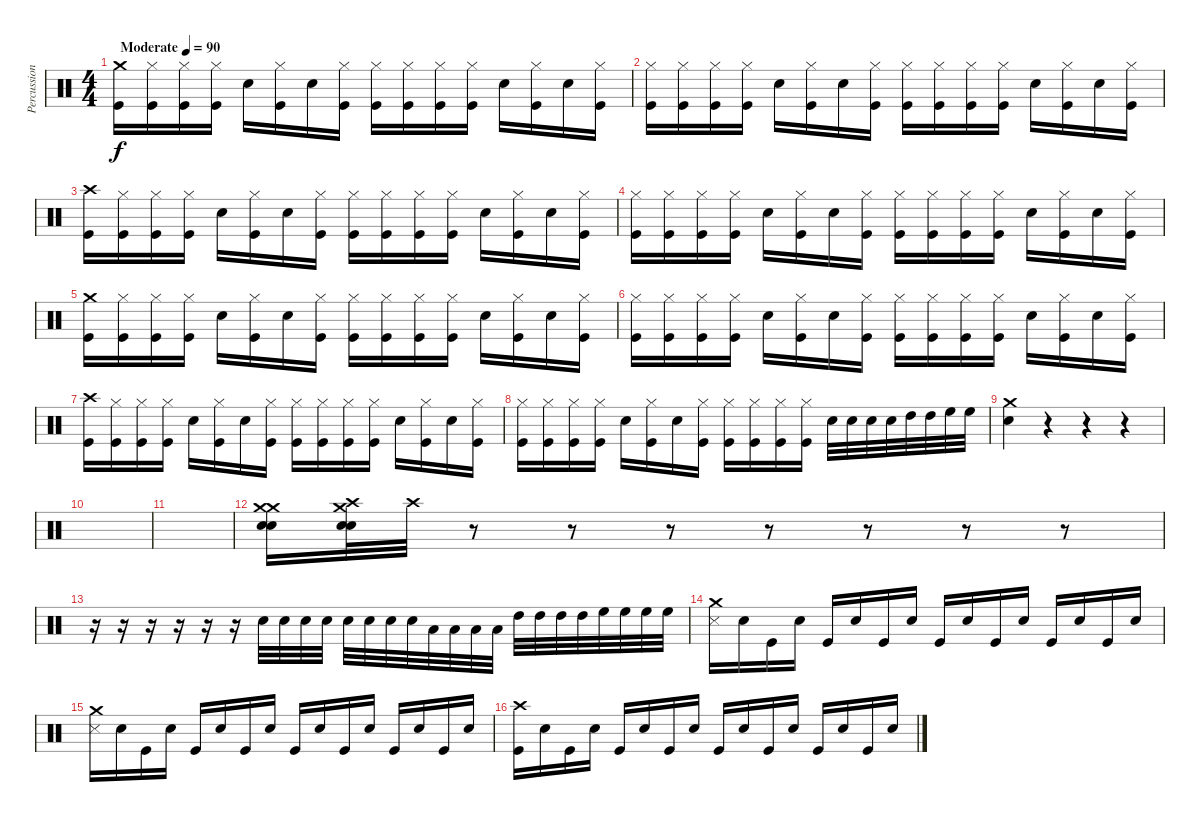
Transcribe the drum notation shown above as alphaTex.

\track ("Percussion" "Percussion") {instrument percussion}
\staff {score}
\articulation defaults
\ts (4 4)
\tempo (90 "Moderate")
\clef neutral
\ks c
("Crash medium (hit)" "Kick (hit)").16{dy f} ("Hi-Hat (closed)" "Kick (hit)").16 ("Hi-Hat (closed)" "Kick (hit)").16 ("Hi-Hat (closed)" "Kick (hit)").16 "Electric Snare (hit)".16 ("Hi-Hat (closed)" "Kick (hit)").16 "Electric Snare (hit)".16 ("Hi-Hat (closed)" "Kick (hit)").16 ("Hi-Hat (closed)" "Kick (hit)").16 ("Hi-Hat (closed)" "Kick (hit)").16 ("Hi-Hat (closed)" "Kick (hit)").16 ("Hi-Hat (closed)" "Kick (hit)").16 "Electric Snare (hit)".16 ("Hi-Hat (closed)" "Kick (hit)").16 "Electric Snare (hit)".16 ("Hi-Hat (closed)" "Kick (hit)").16 |
("Hi-Hat (closed)" "Kick (hit)").16 ("Hi-Hat (closed)" "Kick (hit)").16 ("Hi-Hat (closed)" "Kick (hit)").16 ("Hi-Hat (closed)" "Kick (hit)").16 "Electric Snare (hit)".16 ("Hi-Hat (closed)" "Kick (hit)").16 "Electric Snare (hit)".16 ("Hi-Hat (closed)" "Kick (hit)").16 ("Hi-Hat (closed)" "Kick (hit)").16 ("Hi-Hat (closed)" "Kick (hit)").16 ("Hi-Hat (closed)" "Kick (hit)").16 ("Hi-Hat (closed)" "Kick (hit)").16 "Electric Snare (hit)".16 ("Hi-Hat (closed)" "Kick (hit)").16 "Electric Snare (hit)".16 ("Hi-Hat (closed)" "Kick (hit)").16 |
("Crash high (hit)" "Kick (hit)").16 ("Hi-Hat (closed)" "Kick (hit)").16 ("Hi-Hat (closed)" "Kick (hit)").16 ("Hi-Hat (closed)" "Kick (hit)").16 "Electric Snare (hit)".16 ("Hi-Hat (closed)" "Kick (hit)").16 "Electric Snare (hit)".16 ("Hi-Hat (closed)" "Kick (hit)").16 ("Hi-Hat (closed)" "Kick (hit)").16 ("Hi-Hat (closed)" "Kick (hit)").16 ("Hi-Hat (closed)" "Kick (hit)").16 ("Hi-Hat (closed)" "Kick (hit)").16 "Electric Snare (hit)".16 ("Hi-Hat (closed)" "Kick (hit)").16 "Electric Snare (hit)".16 ("Hi-Hat (closed)" "Kick (hit)").16 |
("Hi-Hat (closed)" "Kick (hit)").16 ("Hi-Hat (closed)" "Kick (hit)").16 ("Hi-Hat (closed)" "Kick (hit)").16 ("Hi-Hat (closed)" "Kick (hit)").16 "Electric Snare (hit)".16 ("Hi-Hat (closed)" "Kick (hit)").16 "Electric Snare (hit)".16 ("Hi-Hat (closed)" "Kick (hit)").16 ("Hi-Hat (closed)" "Kick (hit)").16 ("Hi-Hat (closed)" "Kick (hit)").16 ("Hi-Hat (closed)" "Kick (hit)").16 ("Hi-Hat (closed)" "Kick (hit)").16 "Electric Snare (hit)".16 ("Hi-Hat (closed)" "Kick (hit)").16 "Electric Snare (hit)".16 ("Hi-Hat (closed)" "Kick (hit)").16 |
("Crash medium (hit)" "Kick (hit)").16 ("Hi-Hat (closed)" "Kick (hit)").16 ("Hi-Hat (closed)" "Kick (hit)").16 ("Hi-Hat (closed)" "Kick (hit)").16 "Electric Snare (hit)".16 ("Hi-Hat (closed)" "Kick (hit)").16 "Electric Snare (hit)".16 ("Hi-Hat (closed)" "Kick (hit)").16 ("Hi-Hat (closed)" "Kick (hit)").16 ("Hi-Hat (closed)" "Kick (hit)").16 ("Hi-Hat (closed)" "Kick (hit)").16 ("Hi-Hat (closed)" "Kick (hit)").16 "Electric Snare (hit)".16 ("Hi-Hat (closed)" "Kick (hit)").16 "Electric Snare (hit)".16 ("Hi-Hat (closed)" "Kick (hit)").16 |
("Hi-Hat (closed)" "Kick (hit)").16 ("Hi-Hat (closed)" "Kick (hit)").16 ("Hi-Hat (closed)" "Kick (hit)").16 ("Hi-Hat (closed)" "Kick (hit)").16 "Electric Snare (hit)".16 ("Hi-Hat (closed)" "Kick (hit)").16 "Electric Snare (hit)".16 ("Hi-Hat (closed)" "Kick (hit)").16 ("Hi-Hat (closed)" "Kick (hit)").16 ("Hi-Hat (closed)" "Kick (hit)").16 ("Hi-Hat (closed)" "Kick (hit)").16 ("Hi-Hat (closed)" "Kick (hit)").16 "Electric Snare (hit)".16 ("Hi-Hat (closed)" "Kick (hit)").16 "Electric Snare (hit)".16 ("Hi-Hat (closed)" "Kick (hit)").16 |
("Crash high (hit)" "Kick (hit)").16 ("Hi-Hat (closed)" "Kick (hit)").16 ("Hi-Hat (closed)" "Kick (hit)").16 ("Hi-Hat (closed)" "Kick (hit)").16 "Electric Snare (hit)".16 ("Hi-Hat (closed)" "Kick (hit)").16 "Electric Snare (hit)".16 ("Hi-Hat (closed)" "Kick (hit)").16 ("Hi-Hat (closed)" "Kick (hit)").16 ("Hi-Hat (closed)" "Kick (hit)").16 ("Hi-Hat (closed)" "Kick (hit)").16 ("Hi-Hat (closed)" "Kick (hit)").16 "Electric Snare (hit)".16 ("Hi-Hat (closed)" "Kick (hit)").16 "Electric Snare (hit)".16 ("Hi-Hat (closed)" "Kick (hit)").16 |
("Hi-Hat (closed)" "Kick (hit)").16 ("Hi-Hat (closed)" "Kick (hit)").16 ("Hi-Hat (closed)" "Kick (hit)").16 ("Hi-Hat (closed)" "Kick (hit)").16 "Electric Snare (hit)".16 ("Hi-Hat (closed)" "Kick (hit)").16 "Electric Snare (hit)".16 ("Hi-Hat (closed)" "Kick (hit)").16 ("Hi-Hat (closed)" "Kick (hit)").16 ("Hi-Hat (closed)" "Kick (hit)").16 ("Hi-Hat (closed)" "Kick (hit)").16 ("Hi-Hat (closed)" "Kick (hit)").16 "Snare (hit) 2".32 "Snare (hit) 2".32 "Electric Snare (hit)".32 "Electric Snare (hit)".32 "High Tom (hit)".32 "High Tom (hit)".32 "High Floor Tom (hit)".32 "High Floor Tom (hit)".32 |
("Crash medium (hit)" "Electric Snare (hit)").4 r.4 r.4 r.4 |
|
|
("Crash medium (hit)" "Crash medium (hit)" "Electric Snare (hit)" "Electric Snare (hit)").16 ("Crash high (hit)" "Crash medium (hit)" "Electric Snare (hit)" "Electric Snare (hit)").32 "Crash high (hit)".32 r.8 r.8 r.8 r.8 r.8 r.8 r.8 |
r.16 r.16 r.16 r.16 r.16 r.16 "Snare (hit) 2".32 "Snare (hit) 2".32 "Snare (hit) 2".32 "Snare (hit) 2".32 "Electric Snare (hit)".32 "Electric Snare (hit)".32 "Electric Snare (hit)".32 "Electric Snare (hit)".32 "Low Tom (hit)".32 "Low Tom (hit)".32 "Low Tom (hit)".32 "Low Tom (hit)".32 "High Tom (hit)".32 "High Tom (hit)".32 "High Tom (hit)".32 "High Tom (hit)".32 "High Floor Tom (hit)".32 "High Floor Tom (hit)".32 "High Floor Tom (hit)".32 "High Floor Tom (hit)".32 |
("Crash medium (hit)" "Metronome (hit)").16 "Electric Snare (hit)".16 "Kick (hit)".16 "Electric Snare (hit)".16 "Kick (hit)".16 "Electric Snare (hit)".16 "Kick (hit)".16 "Electric Snare (hit)".16 "Kick (hit)".16 "Electric Snare (hit)".16 "Kick (hit)".16 "Electric Snare (hit)".16 "Kick (hit)".16 "Electric Snare (hit)".16 "Kick (hit)".16 "Electric Snare (hit)".16 |
("Crash medium (hit)" "Metronome (hit)").16 "Electric Snare (hit)".16 "Kick (hit)".16 "Electric Snare (hit)".16 "Kick (hit)".16 "Electric Snare (hit)".16 "Kick (hit)".16 "Electric Snare (hit)".16 "Kick (hit)".16 "Electric Snare (hit)".16 "Kick (hit)".16 "Electric Snare (hit)".16 "Kick (hit)".16 "Electric Snare (hit)".16 "Kick (hit)".16 "Electric Snare (hit)".16 |
("Kick (hit)" "Crash high (hit)").16 "Electric Snare (hit)".16 "Kick (hit)".16 "Electric Snare (hit)".16 "Kick (hit)".16 "Electric Snare (hit)".16 "Kick (hit)".16 "Electric Snare (hit)".16 "Kick (hit)".16 "Electric Snare (hit)".16 "Kick (hit)".16 "Electric Snare (hit)".16 "Kick (hit)".16 "Electric Snare (hit)".16 "Kick (hit)".16 "Electric Snare (hit)".16
